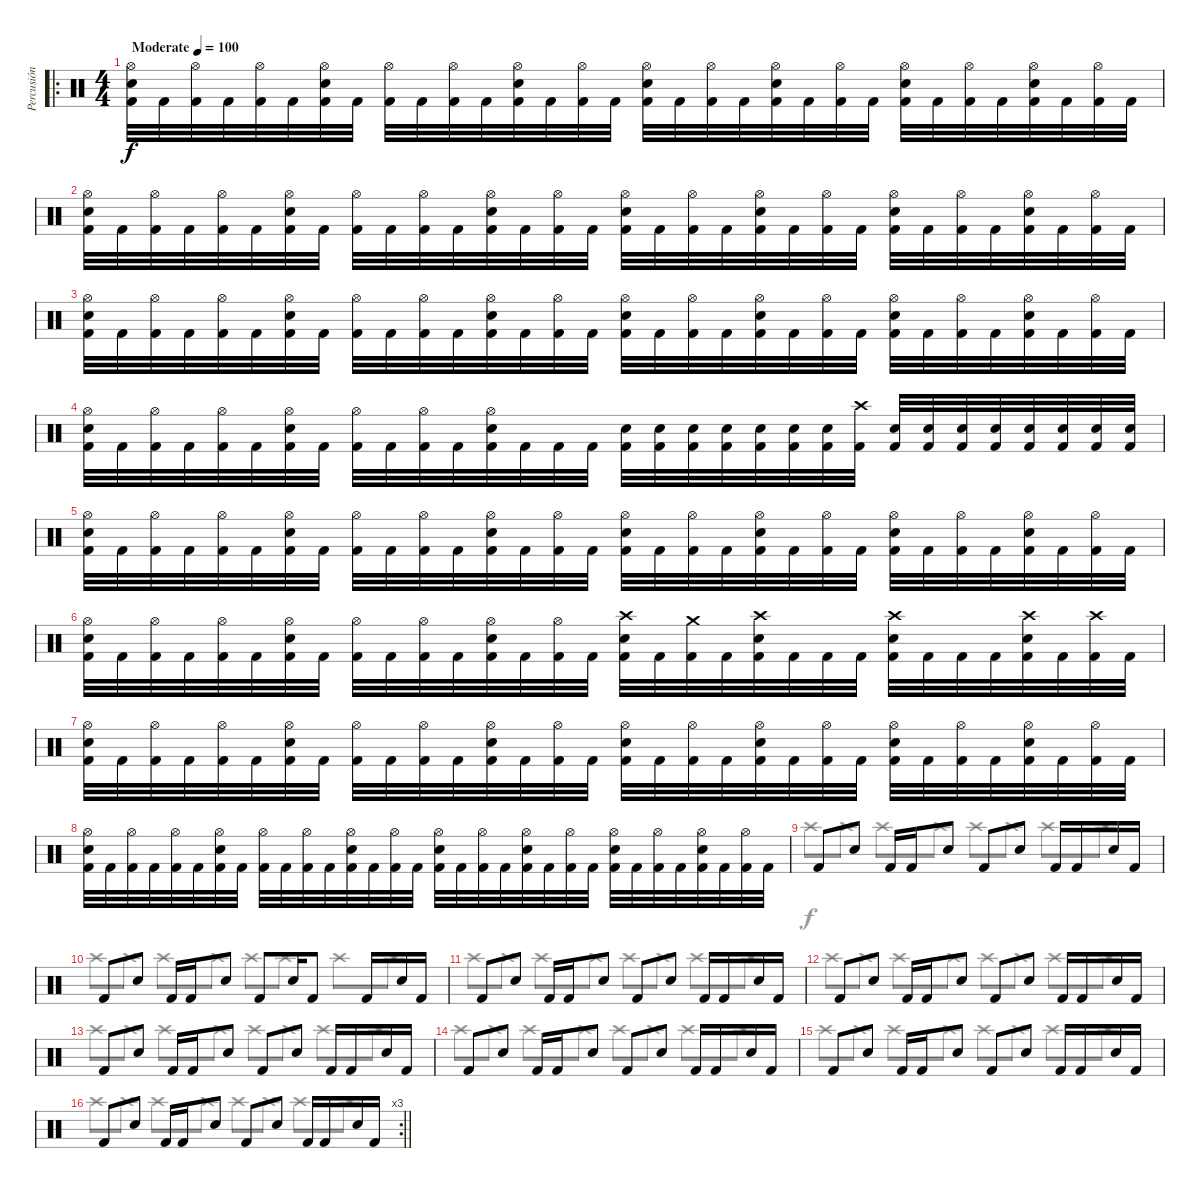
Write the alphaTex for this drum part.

\track ("Percusión" "Percusión") {instrument percussion}
\staff {score}
\articulation defaults
\voice
\ro
\ts (4 4)
\tempo (100 "Moderate")
\clef neutral
\ks c
("Kick (hit) 2" "Snare (hit) 2" "Hi-Hat (open)").32{dy f} "Kick (hit) 2".32 ("Kick (hit) 2" "Hi-Hat (open)").32 "Kick (hit) 2".32 ("Kick (hit) 2" "Hi-Hat (open)").32 "Kick (hit) 2".32 ("Kick (hit) 2" "Snare (hit) 2" "Hi-Hat (open)").32 "Kick (hit) 2".32 ("Kick (hit) 2" "Hi-Hat (open)").32 "Kick (hit) 2".32 ("Kick (hit) 2" "Hi-Hat (open)").32 "Kick (hit) 2".32 ("Kick (hit) 2" "Snare (hit) 2" "Hi-Hat (open)").32 "Kick (hit) 2".32 ("Kick (hit) 2" "Hi-Hat (open)").32 "Kick (hit) 2".32 ("Kick (hit) 2" "Snare (hit) 2" "Hi-Hat (open)").32 "Kick (hit) 2".32 ("Kick (hit) 2" "Hi-Hat (open)").32 "Kick (hit) 2".32 ("Kick (hit) 2" "Snare (hit) 2" "Hi-Hat (open)").32 "Kick (hit) 2".32 ("Kick (hit) 2" "Hi-Hat (open)").32 "Kick (hit) 2".32 ("Kick (hit) 2" "Snare (hit) 2" "Hi-Hat (open)").32 "Kick (hit) 2".32 ("Kick (hit) 2" "Hi-Hat (open)").32 "Kick (hit) 2".32 ("Kick (hit) 2" "Snare (hit) 2" "Hi-Hat (open)").32 "Kick (hit) 2".32 ("Kick (hit) 2" "Hi-Hat (open)").32 "Kick (hit) 2".32 |
("Kick (hit) 2" "Snare (hit) 2" "Hi-Hat (open)").32 "Kick (hit) 2".32 ("Kick (hit) 2" "Hi-Hat (open)").32 "Kick (hit) 2".32 ("Kick (hit) 2" "Hi-Hat (open)").32 "Kick (hit) 2".32 ("Kick (hit) 2" "Snare (hit) 2" "Hi-Hat (open)").32 "Kick (hit) 2".32 ("Kick (hit) 2" "Hi-Hat (open)").32 "Kick (hit) 2".32 ("Kick (hit) 2" "Hi-Hat (open)").32 "Kick (hit) 2".32 ("Kick (hit) 2" "Snare (hit) 2" "Hi-Hat (open)").32 "Kick (hit) 2".32 ("Kick (hit) 2" "Hi-Hat (open)").32 "Kick (hit) 2".32 ("Kick (hit) 2" "Snare (hit) 2" "Hi-Hat (open)").32 "Kick (hit) 2".32 ("Kick (hit) 2" "Hi-Hat (open)").32 "Kick (hit) 2".32 ("Kick (hit) 2" "Snare (hit) 2" "Hi-Hat (open)").32 "Kick (hit) 2".32 ("Kick (hit) 2" "Hi-Hat (open)").32 "Kick (hit) 2".32 ("Kick (hit) 2" "Snare (hit) 2" "Hi-Hat (open)").32 "Kick (hit) 2".32 ("Kick (hit) 2" "Hi-Hat (open)").32 "Kick (hit) 2".32 ("Kick (hit) 2" "Snare (hit) 2" "Hi-Hat (open)").32 "Kick (hit) 2".32 ("Kick (hit) 2" "Hi-Hat (open)").32 "Kick (hit) 2".32 |
("Kick (hit) 2" "Snare (hit) 2" "Hi-Hat (open)").32 "Kick (hit) 2".32 ("Kick (hit) 2" "Hi-Hat (open)").32 "Kick (hit) 2".32 ("Kick (hit) 2" "Hi-Hat (open)").32 "Kick (hit) 2".32 ("Kick (hit) 2" "Snare (hit) 2" "Hi-Hat (open)").32 "Kick (hit) 2".32 ("Kick (hit) 2" "Hi-Hat (open)").32 "Kick (hit) 2".32 ("Kick (hit) 2" "Hi-Hat (open)").32 "Kick (hit) 2".32 ("Kick (hit) 2" "Snare (hit) 2" "Hi-Hat (open)").32 "Kick (hit) 2".32 ("Kick (hit) 2" "Hi-Hat (open)").32 "Kick (hit) 2".32 ("Kick (hit) 2" "Snare (hit) 2" "Hi-Hat (open)").32 "Kick (hit) 2".32 ("Kick (hit) 2" "Hi-Hat (open)").32 "Kick (hit) 2".32 ("Kick (hit) 2" "Snare (hit) 2" "Hi-Hat (open)").32 "Kick (hit) 2".32 ("Kick (hit) 2" "Hi-Hat (open)").32 "Kick (hit) 2".32 ("Kick (hit) 2" "Snare (hit) 2" "Hi-Hat (open)").32 "Kick (hit) 2".32 ("Kick (hit) 2" "Hi-Hat (open)").32 "Kick (hit) 2".32 ("Kick (hit) 2" "Snare (hit) 2" "Hi-Hat (open)").32 "Kick (hit) 2".32 ("Kick (hit) 2" "Hi-Hat (open)").32 "Kick (hit) 2".32 |
("Kick (hit) 2" "Snare (hit) 2" "Hi-Hat (open)").32 "Kick (hit) 2".32 ("Kick (hit) 2" "Hi-Hat (open)").32 "Kick (hit) 2".32 ("Kick (hit) 2" "Hi-Hat (open)").32 "Kick (hit) 2".32 ("Kick (hit) 2" "Snare (hit) 2" "Hi-Hat (open)").32 "Kick (hit) 2".32 ("Kick (hit) 2" "Hi-Hat (open)").32 "Kick (hit) 2".32 ("Kick (hit) 2" "Hi-Hat (open)").32 "Kick (hit) 2".32 ("Kick (hit) 2" "Snare (hit) 2" "Hi-Hat (open)").32 "Kick (hit) 2".32 "Kick (hit) 2".32 "Kick (hit) 2".32 ("Kick (hit) 2" "Snare (hit) 2").32 ("Kick (hit) 2" "Snare (hit) 2").32 ("Kick (hit) 2" "Snare (hit) 2").32 ("Kick (hit) 2" "Snare (hit) 2").32 ("Kick (hit) 2" "Snare (hit) 2").32 ("Kick (hit) 2" "Snare (hit) 2").32 ("Kick (hit) 2" "Snare (hit) 2").32 ("Kick (hit) 2" "Crash high (hit)").32 ("Kick (hit) 2" "Snare (hit) 2").32 ("Kick (hit) 2" "Snare (hit) 2").32 ("Kick (hit) 2" "Snare (hit) 2").32 ("Kick (hit) 2" "Snare (hit) 2").32 ("Kick (hit) 2" "Snare (hit) 2").32 ("Kick (hit) 2" "Snare (hit) 2").32 ("Kick (hit) 2" "Snare (hit) 2").32 ("Kick (hit) 2" "Snare (hit) 2").32 |
("Kick (hit) 2" "Snare (hit) 2" "Hi-Hat (open)").32 "Kick (hit) 2".32 ("Kick (hit) 2" "Hi-Hat (open)").32 "Kick (hit) 2".32 ("Kick (hit) 2" "Hi-Hat (open)").32 "Kick (hit) 2".32 ("Kick (hit) 2" "Snare (hit) 2" "Hi-Hat (open)").32 "Kick (hit) 2".32 ("Kick (hit) 2" "Hi-Hat (open)").32 "Kick (hit) 2".32 ("Kick (hit) 2" "Hi-Hat (open)").32 "Kick (hit) 2".32 ("Kick (hit) 2" "Snare (hit) 2" "Hi-Hat (open)").32 "Kick (hit) 2".32 ("Kick (hit) 2" "Hi-Hat (open)").32 "Kick (hit) 2".32 ("Kick (hit) 2" "Snare (hit) 2" "Hi-Hat (open)").32 "Kick (hit) 2".32 ("Kick (hit) 2" "Hi-Hat (open)").32 "Kick (hit) 2".32 ("Kick (hit) 2" "Snare (hit) 2" "Hi-Hat (open)").32 "Kick (hit) 2".32 ("Kick (hit) 2" "Hi-Hat (open)").32 "Kick (hit) 2".32 ("Kick (hit) 2" "Snare (hit) 2" "Hi-Hat (open)").32 "Kick (hit) 2".32 ("Kick (hit) 2" "Hi-Hat (open)").32 "Kick (hit) 2".32 ("Kick (hit) 2" "Snare (hit) 2" "Hi-Hat (open)").32 "Kick (hit) 2".32 ("Kick (hit) 2" "Hi-Hat (open)").32 "Kick (hit) 2".32 |
("Kick (hit) 2" "Snare (hit) 2" "Hi-Hat (open)").32 "Kick (hit) 2".32 ("Kick (hit) 2" "Hi-Hat (open)").32 "Kick (hit) 2".32 ("Kick (hit) 2" "Hi-Hat (open)").32 "Kick (hit) 2".32 ("Kick (hit) 2" "Snare (hit) 2" "Hi-Hat (open)").32 "Kick (hit) 2".32 ("Kick (hit) 2" "Hi-Hat (open)").32 "Kick (hit) 2".32 ("Kick (hit) 2" "Hi-Hat (open)").32 "Kick (hit) 2".32 ("Kick (hit) 2" "Snare (hit) 2" "Hi-Hat (open)").32 "Kick (hit) 2".32 ("Kick (hit) 2" "Hi-Hat (open)").32 "Kick (hit) 2".32 ("Kick (hit) 2" "Snare (hit) 2" "Crash high (hit)").32 "Kick (hit) 2".32 ("Kick (hit) 2" "Crash medium (hit)").32 "Kick (hit) 2".32 ("Kick (hit) 2" "Snare (hit) 2" "Crash high (hit)").32 "Kick (hit) 2".32 "Kick (hit) 2".32 "Kick (hit) 2".32 ("Kick (hit) 2" "Snare (hit) 2" "Crash high (hit)").32 "Kick (hit) 2".32 "Kick (hit) 2".32 "Kick (hit) 2".32 ("Kick (hit) 2" "Snare (hit) 2" "Crash high (hit)").32 "Kick (hit) 2".32 ("Kick (hit) 2" "Crash high (hit)").32 "Kick (hit) 2".32 |
("Kick (hit) 2" "Snare (hit) 2" "Hi-Hat (open)").32 "Kick (hit) 2".32 ("Kick (hit) 2" "Hi-Hat (open)").32 "Kick (hit) 2".32 ("Kick (hit) 2" "Hi-Hat (open)").32 "Kick (hit) 2".32 ("Kick (hit) 2" "Snare (hit) 2" "Hi-Hat (open)").32 "Kick (hit) 2".32 ("Kick (hit) 2" "Hi-Hat (open)").32 "Kick (hit) 2".32 ("Kick (hit) 2" "Hi-Hat (open)").32 "Kick (hit) 2".32 ("Kick (hit) 2" "Snare (hit) 2" "Hi-Hat (open)").32 "Kick (hit) 2".32 ("Kick (hit) 2" "Hi-Hat (open)").32 "Kick (hit) 2".32 ("Kick (hit) 2" "Snare (hit) 2" "Hi-Hat (open)").32 "Kick (hit) 2".32 ("Kick (hit) 2" "Hi-Hat (open)").32 "Kick (hit) 2".32 ("Kick (hit) 2" "Snare (hit) 2" "Hi-Hat (open)").32 "Kick (hit) 2".32 ("Kick (hit) 2" "Hi-Hat (open)").32 "Kick (hit) 2".32 ("Kick (hit) 2" "Snare (hit) 2" "Hi-Hat (open)").32 "Kick (hit) 2".32 ("Kick (hit) 2" "Hi-Hat (open)").32 "Kick (hit) 2".32 ("Kick (hit) 2" "Snare (hit) 2" "Hi-Hat (open)").32 "Kick (hit) 2".32 ("Kick (hit) 2" "Hi-Hat (open)").32 "Kick (hit) 2".32 |
("Kick (hit) 2" "Snare (hit) 2" "Hi-Hat (open)").32 "Kick (hit) 2".32 ("Kick (hit) 2" "Hi-Hat (open)").32 "Kick (hit) 2".32 ("Kick (hit) 2" "Hi-Hat (open)").32 "Kick (hit) 2".32 ("Kick (hit) 2" "Snare (hit) 2" "Hi-Hat (open)").32 "Kick (hit) 2".32 ("Kick (hit) 2" "Hi-Hat (open)").32 "Kick (hit) 2".32 ("Kick (hit) 2" "Hi-Hat (open)").32 "Kick (hit) 2".32 ("Kick (hit) 2" "Snare (hit) 2" "Hi-Hat (open)").32 "Kick (hit) 2".32 ("Kick (hit) 2" "Hi-Hat (open)").32 "Kick (hit) 2".32 ("Kick (hit) 2" "Snare (hit) 2" "Hi-Hat (open)").32 "Kick (hit) 2".32 ("Kick (hit) 2" "Hi-Hat (open)").32 "Kick (hit) 2".32 ("Kick (hit) 2" "Snare (hit) 2" "Hi-Hat (open)").32 "Kick (hit) 2".32 ("Kick (hit) 2" "Hi-Hat (open)").32 "Kick (hit) 2".32 ("Kick (hit) 2" "Snare (hit) 2" "Hi-Hat (open)").32 "Kick (hit) 2".32 ("Kick (hit) 2" "Hi-Hat (open)").32 "Kick (hit) 2".32 ("Kick (hit) 2" "Snare (hit) 2" "Hi-Hat (open)").32 "Kick (hit) 2".32 ("Kick (hit) 2" "Hi-Hat (open)").32 "Kick (hit) 2".32 |
"Kick (hit) 2".8 "Snare (hit) 2".8 "Kick (hit) 2".16 "Kick (hit) 2".16 "Snare (hit) 2".8 "Kick (hit) 2".8 "Snare (hit) 2".8 "Kick (hit) 2".16 "Kick (hit) 2".16 "Snare (hit) 2".16 "Kick (hit) 2".16 |
"Kick (hit) 2".8 "Snare (hit) 2".8 "Kick (hit) 2".16 "Kick (hit) 2".16 "Snare (hit) 2".8 "Kick (hit) 2".8 "Snare (hit) 2".16 "Kick (hit) 2".8 "Kick (hit) 2".16 "Snare (hit) 2".16 "Kick (hit) 2".16 |
"Kick (hit) 2".8 "Snare (hit) 2".8 "Kick (hit) 2".16 "Kick (hit) 2".16 "Snare (hit) 2".8 "Kick (hit) 2".8 "Snare (hit) 2".8 "Kick (hit) 2".16 "Kick (hit) 2".16 "Snare (hit) 2".16 "Kick (hit) 2".16 |
"Kick (hit) 2".8 "Snare (hit) 2".8 "Kick (hit) 2".16 "Kick (hit) 2".16 "Snare (hit) 2".8 "Kick (hit) 2".8 "Snare (hit) 2".8 "Kick (hit) 2".16 "Kick (hit) 2".16 "Snare (hit) 2".16 "Kick (hit) 2".16 |
"Kick (hit) 2".8 "Snare (hit) 2".8 "Kick (hit) 2".16 "Kick (hit) 2".16 "Snare (hit) 2".8 "Kick (hit) 2".8 "Snare (hit) 2".8 "Kick (hit) 2".16 "Kick (hit) 2".16 "Snare (hit) 2".16 "Kick (hit) 2".16 |
"Kick (hit) 2".8 "Snare (hit) 2".8 "Kick (hit) 2".16 "Kick (hit) 2".16 "Snare (hit) 2".8 "Kick (hit) 2".8 "Snare (hit) 2".8 "Kick (hit) 2".16 "Kick (hit) 2".16 "Snare (hit) 2".16 "Kick (hit) 2".16 |
"Kick (hit) 2".8 "Snare (hit) 2".8 "Kick (hit) 2".16 "Kick (hit) 2".16 "Snare (hit) 2".8 "Kick (hit) 2".8 "Snare (hit) 2".8 "Kick (hit) 2".16 "Kick (hit) 2".16 "Snare (hit) 2".16 "Kick (hit) 2".16 |
\rc 3
\barLineRight lightlight "Kick (hit) 2".8 "Snare (hit) 2".8 "Kick (hit) 2".16 "Kick (hit) 2".16 "Snare (hit) 2".8 "Kick (hit) 2".8 "Snare (hit) 2".8 "Kick (hit) 2".16 "Kick (hit) 2".16 "Snare (hit) 2".16 "Kick (hit) 2".16
\voice
\clef neutral
\ottava regular
\simile none
\ks c
|
|
|
|
|
|
|
|
"Crash high (hit)".8 "Crash high (hit)".8 "Crash high (hit)".8 "Crash high (hit)".8 "Crash high (hit)".8 "Crash high (hit)".8 "Crash high (hit)".8 "Crash high (hit)".8 |
"Crash high (hit)".8 "Crash high (hit)".8 "Crash high (hit)".8 "Crash high (hit)".8 "Crash high (hit)".8 "Crash high (hit)".8 "Crash high (hit)".8 "Crash high (hit)".8 |
"Crash high (hit)".8 "Crash high (hit)".8 "Crash high (hit)".8 "Crash high (hit)".8 "Crash high (hit)".8 "Crash high (hit)".8 "Crash high (hit)".8 "Crash high (hit)".8 |
"Crash high (hit)".8 "Crash high (hit)".8 "Crash high (hit)".8 "Crash high (hit)".8 "Crash high (hit)".8 "Crash high (hit)".8 "Crash high (hit)".8 "Crash high (hit)".8 |
"Crash high (hit)".8 "Crash high (hit)".8 "Crash high (hit)".8 "Crash high (hit)".8 "Crash high (hit)".8 "Crash high (hit)".8 "Crash high (hit)".8 "Crash high (hit)".8 |
"Crash high (hit)".8 "Crash high (hit)".8 "Crash high (hit)".8 "Crash high (hit)".8 "Crash high (hit)".8 "Crash high (hit)".8 "Crash high (hit)".8 "Crash high (hit)".8 |
"Crash high (hit)".8 "Crash high (hit)".8 "Crash high (hit)".8 "Crash high (hit)".8 "Crash high (hit)".8 "Crash high (hit)".8 "Crash high (hit)".8 "Crash high (hit)".8 |
\barLineRight lightlight "Crash high (hit)".8 "Crash high (hit)".8 "Crash high (hit)".8 "Crash high (hit)".8 "Crash high (hit)".8 "Crash high (hit)".8 "Crash high (hit)".8 "Crash high (hit)".8
